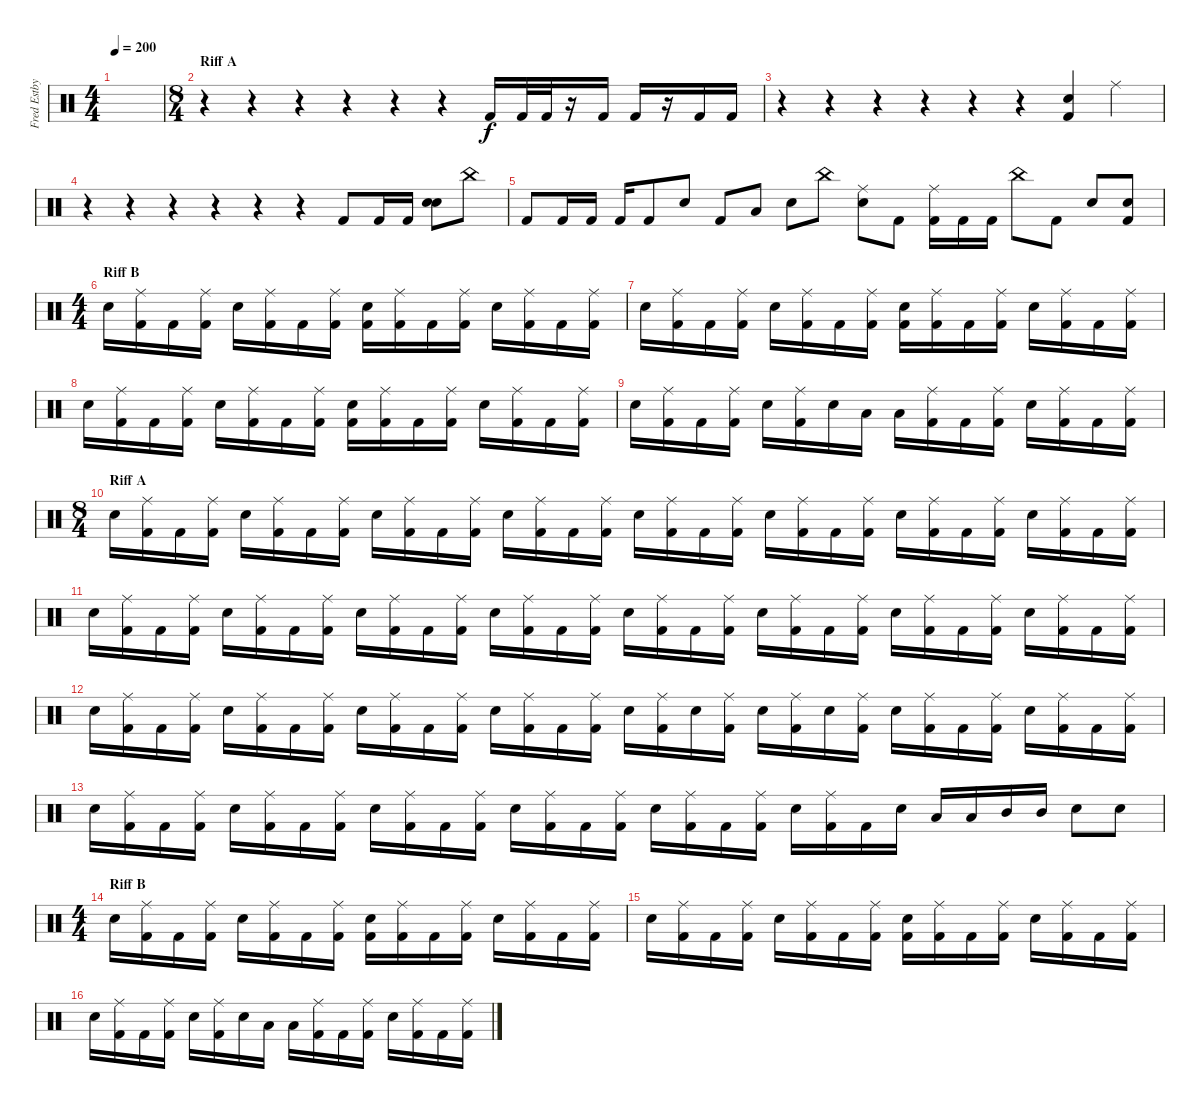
\track ("Fred Estby" "Fred Estby") {instrument percussion}
\staff {score}
\articulation defaults
\ts (4 4)
\tempo 200
\clef neutral
\ks c
|
\ts (8 4)
\section ("" "Riff A")
r.4 r.4 r.4 r.4 r.4 r.4 "Kick (hit) 2".16 "Kick (hit) 2".32 "Kick (hit) 2".32 r.16 "Kick (hit) 2".16 "Kick (hit) 2".16 r.16 "Kick (hit) 2".16 "Kick (hit) 2".16 |
r.4 r.4 r.4 r.4 r.4 r.4 ("Electric Snare (hit)" "Kick (hit) 2").4 "Ride (middle)".4 |
r.4 r.4 r.4 r.4 r.4 r.4 "Kick (hit) 2".8 "Kick (hit) 2".16 "Kick (hit) 2".16 ("Electric Snare (hit)" "Electric Snare (hit)").8 "China (hit)".8 |
"Kick (hit) 2".8 "Kick (hit) 2".16 "Kick (hit) 2".16 "Kick (hit) 2".16 "Kick (hit) 2".8 "Electric Snare (hit)".8 "Kick (hit) 2".8 "Low Tom (hit)".8 "Electric Snare (hit)".8 "China (hit)".8 ("Ride (middle)" "Electric Snare (hit)").8 "Kick (hit) 2".8 ("Ride (middle)" "Kick (hit) 2").16 "Kick (hit) 2".16 "Kick (hit) 2".16 "China (hit)".8 "Kick (hit) 2".8 "Electric Snare (hit)".8 ("Electric Snare (hit)" "Kick (hit) 2").8 |
\ts (4 4)
\section ("" "Riff B")
"Electric Snare (hit)".16 ("Ride (middle)" "Kick (hit) 2").16 "Kick (hit) 2".16 ("Ride (middle)" "Kick (hit) 2").16 "Electric Snare (hit)".16 ("Ride (middle)" "Kick (hit) 2").16 "Kick (hit) 2".16 ("Ride (middle)" "Kick (hit) 2").16 ("Electric Snare (hit)" "Kick (hit) 2").16 ("Ride (middle)" "Kick (hit) 2").16 "Kick (hit) 2".16 ("Ride (middle)" "Kick (hit) 2").16 "Electric Snare (hit)".16 ("Ride (middle)" "Kick (hit) 2").16 "Kick (hit) 2".16 ("Ride (middle)" "Kick (hit) 2").16 |
"Electric Snare (hit)".16 ("Ride (middle)" "Kick (hit) 2").16 "Kick (hit) 2".16 ("Ride (middle)" "Kick (hit) 2").16 "Electric Snare (hit)".16 ("Ride (middle)" "Kick (hit) 2").16 "Kick (hit) 2".16 ("Ride (middle)" "Kick (hit) 2").16 ("Electric Snare (hit)" "Kick (hit) 2").16 ("Ride (middle)" "Kick (hit) 2").16 "Kick (hit) 2".16 ("Ride (middle)" "Kick (hit) 2").16 "Electric Snare (hit)".16 ("Ride (middle)" "Kick (hit) 2").16 "Kick (hit) 2".16 ("Ride (middle)" "Kick (hit) 2").16 |
"Electric Snare (hit)".16 ("Ride (middle)" "Kick (hit) 2").16 "Kick (hit) 2".16 ("Ride (middle)" "Kick (hit) 2").16 "Electric Snare (hit)".16 ("Ride (middle)" "Kick (hit) 2").16 "Kick (hit) 2".16 ("Ride (middle)" "Kick (hit) 2").16 ("Electric Snare (hit)" "Kick (hit) 2").16 ("Ride (middle)" "Kick (hit) 2").16 "Kick (hit) 2".16 ("Ride (middle)" "Kick (hit) 2").16 "Electric Snare (hit)".16 ("Ride (middle)" "Kick (hit) 2").16 "Kick (hit) 2".16 ("Ride (middle)" "Kick (hit) 2").16 |
"Electric Snare (hit)".16 ("Ride (middle)" "Kick (hit) 2").16 "Kick (hit) 2".16 ("Ride (middle)" "Kick (hit) 2").16 "Electric Snare (hit)".16 ("Ride (middle)" "Kick (hit) 2").16 "Electric Snare (hit)".16 "Low Tom (hit)".16 "Low Tom (hit)".16 ("Ride (middle)" "Kick (hit) 2").16 "Kick (hit) 2".16 ("Ride (middle)" "Kick (hit) 2").16 "Electric Snare (hit)".16 ("Ride (middle)" "Kick (hit) 2").16 "Kick (hit) 2".16 ("Ride (middle)" "Kick (hit) 2").16 |
\ts (8 4)
\section ("" "Riff A")
"Electric Snare (hit)".16 ("Ride (middle)" "Kick (hit) 2").16 "Kick (hit) 2".16 ("Ride (middle)" "Kick (hit) 2").16 "Electric Snare (hit)".16 ("Ride (middle)" "Kick (hit) 2").16 "Kick (hit) 2".16 ("Ride (middle)" "Kick (hit) 2").16 "Electric Snare (hit)".16 ("Ride (middle)" "Kick (hit) 2").16 "Kick (hit) 2".16 ("Ride (middle)" "Kick (hit) 2").16 "Electric Snare (hit)".16 ("Ride (middle)" "Kick (hit) 2").16 "Kick (hit) 2".16 ("Ride (middle)" "Kick (hit) 2").16 "Electric Snare (hit)".16 ("Ride (middle)" "Kick (hit) 2").16 "Kick (hit) 2".16 ("Ride (middle)" "Kick (hit) 2").16 "Electric Snare (hit)".16 ("Ride (middle)" "Kick (hit) 2").16 "Kick (hit) 2".16 ("Ride (middle)" "Kick (hit) 2").16 "Electric Snare (hit)".16 ("Ride (middle)" "Kick (hit) 2").16 "Kick (hit) 2".16 ("Ride (middle)" "Kick (hit) 2").16 "Electric Snare (hit)".16 ("Ride (middle)" "Kick (hit) 2").16 "Kick (hit) 2".16 ("Ride (middle)" "Kick (hit) 2").16 |
"Electric Snare (hit)".16 ("Ride (middle)" "Kick (hit) 2").16 "Kick (hit) 2".16 ("Ride (middle)" "Kick (hit) 2").16 "Electric Snare (hit)".16 ("Ride (middle)" "Kick (hit) 2").16 "Kick (hit) 2".16 ("Ride (middle)" "Kick (hit) 2").16 "Electric Snare (hit)".16 ("Ride (middle)" "Kick (hit) 2").16 "Kick (hit) 2".16 ("Ride (middle)" "Kick (hit) 2").16 "Electric Snare (hit)".16 ("Ride (middle)" "Kick (hit) 2").16 "Kick (hit) 2".16 ("Ride (middle)" "Kick (hit) 2").16 "Electric Snare (hit)".16 ("Ride (middle)" "Kick (hit) 2").16 "Kick (hit) 2".16 ("Ride (middle)" "Kick (hit) 2").16 "Electric Snare (hit)".16 ("Ride (middle)" "Kick (hit) 2").16 "Kick (hit) 2".16 ("Ride (middle)" "Kick (hit) 2").16 "Electric Snare (hit)".16 ("Ride (middle)" "Kick (hit) 2").16 "Kick (hit) 2".16 ("Ride (middle)" "Kick (hit) 2").16 "Electric Snare (hit)".16 ("Ride (middle)" "Kick (hit) 2").16 "Kick (hit) 2".16 ("Ride (middle)" "Kick (hit) 2").16 |
"Electric Snare (hit)".16 ("Ride (middle)" "Kick (hit) 2").16 "Kick (hit) 2".16 ("Ride (middle)" "Kick (hit) 2").16 "Electric Snare (hit)".16 ("Ride (middle)" "Kick (hit) 2").16 "Kick (hit) 2".16 ("Ride (middle)" "Kick (hit) 2").16 "Electric Snare (hit)".16 ("Ride (middle)" "Kick (hit) 2").16 "Kick (hit) 2".16 ("Ride (middle)" "Kick (hit) 2").16 "Electric Snare (hit)".16 ("Ride (middle)" "Kick (hit) 2").16 "Kick (hit) 2".16 ("Ride (middle)" "Kick (hit) 2").16 "Electric Snare (hit)".16 ("Ride (middle)" "Kick (hit) 2").16 "Electric Snare (hit)".16 ("Ride (middle)" "Kick (hit) 2").16 "Electric Snare (hit)".16 ("Ride (middle)" "Kick (hit) 2").16 "Electric Snare (hit)".16 ("Ride (middle)" "Kick (hit) 2").16 "Electric Snare (hit)".16 ("Ride (middle)" "Kick (hit) 2").16 "Kick (hit) 2".16 ("Ride (middle)" "Kick (hit) 2").16 "Electric Snare (hit)".16 ("Ride (middle)" "Kick (hit) 2").16 "Kick (hit) 2".16 ("Ride (middle)" "Kick (hit) 2").16 |
"Electric Snare (hit)".16 ("Ride (middle)" "Kick (hit) 2").16 "Kick (hit) 2".16 ("Ride (middle)" "Kick (hit) 2").16 "Electric Snare (hit)".16 ("Ride (middle)" "Kick (hit) 2").16 "Kick (hit) 2".16 ("Ride (middle)" "Kick (hit) 2").16 "Electric Snare (hit)".16 ("Ride (middle)" "Kick (hit) 2").16 "Kick (hit) 2".16 ("Ride (middle)" "Kick (hit) 2").16 "Electric Snare (hit)".16 ("Ride (middle)" "Kick (hit) 2").16 "Kick (hit) 2".16 ("Ride (middle)" "Kick (hit) 2").16 "Electric Snare (hit)".16 ("Ride (middle)" "Kick (hit) 2").16 "Kick (hit) 2".16 ("Ride (middle)" "Kick (hit) 2").16 "Electric Snare (hit)".16 ("Ride (middle)" "Kick (hit) 2").16 "Kick (hit) 2".16 "Electric Snare (hit)".16 "Low Tom (hit)".16 "Low Tom (hit)".16 "Mid Tom (hit)".16 "Mid Tom (hit)".16 "Electric Snare (hit)".8 "Electric Snare (hit)".8 |
\ts (4 4)
\section ("" "Riff B")
"Electric Snare (hit)".16 ("Ride (middle)" "Kick (hit) 2").16 "Kick (hit) 2".16 ("Ride (middle)" "Kick (hit) 2").16 "Electric Snare (hit)".16 ("Ride (middle)" "Kick (hit) 2").16 "Kick (hit) 2".16 ("Ride (middle)" "Kick (hit) 2").16 ("Electric Snare (hit)" "Kick (hit) 2").16 ("Ride (middle)" "Kick (hit) 2").16 "Kick (hit) 2".16 ("Ride (middle)" "Kick (hit) 2").16 "Electric Snare (hit)".16 ("Ride (middle)" "Kick (hit) 2").16 "Kick (hit) 2".16 ("Ride (middle)" "Kick (hit) 2").16 |
"Electric Snare (hit)".16 ("Ride (middle)" "Kick (hit) 2").16 "Kick (hit) 2".16 ("Ride (middle)" "Kick (hit) 2").16 "Electric Snare (hit)".16 ("Ride (middle)" "Kick (hit) 2").16 "Kick (hit) 2".16 ("Ride (middle)" "Kick (hit) 2").16 ("Electric Snare (hit)" "Kick (hit) 2").16 ("Ride (middle)" "Kick (hit) 2").16 "Kick (hit) 2".16 ("Ride (middle)" "Kick (hit) 2").16 "Electric Snare (hit)".16 ("Ride (middle)" "Kick (hit) 2").16 "Kick (hit) 2".16 ("Ride (middle)" "Kick (hit) 2").16 |
"Electric Snare (hit)".16 ("Ride (middle)" "Kick (hit) 2").16 "Kick (hit) 2".16 ("Ride (middle)" "Kick (hit) 2").16 "Electric Snare (hit)".16 ("Ride (middle)" "Kick (hit) 2").16 "Electric Snare (hit)".16 "Low Tom (hit)".16 "Low Tom (hit)".16 ("Ride (middle)" "Kick (hit) 2").16 "Kick (hit) 2".16 ("Ride (middle)" "Kick (hit) 2").16 "Electric Snare (hit)".16 ("Ride (middle)" "Kick (hit) 2").16 "Kick (hit) 2".16 ("Ride (middle)" "Kick (hit) 2").16
